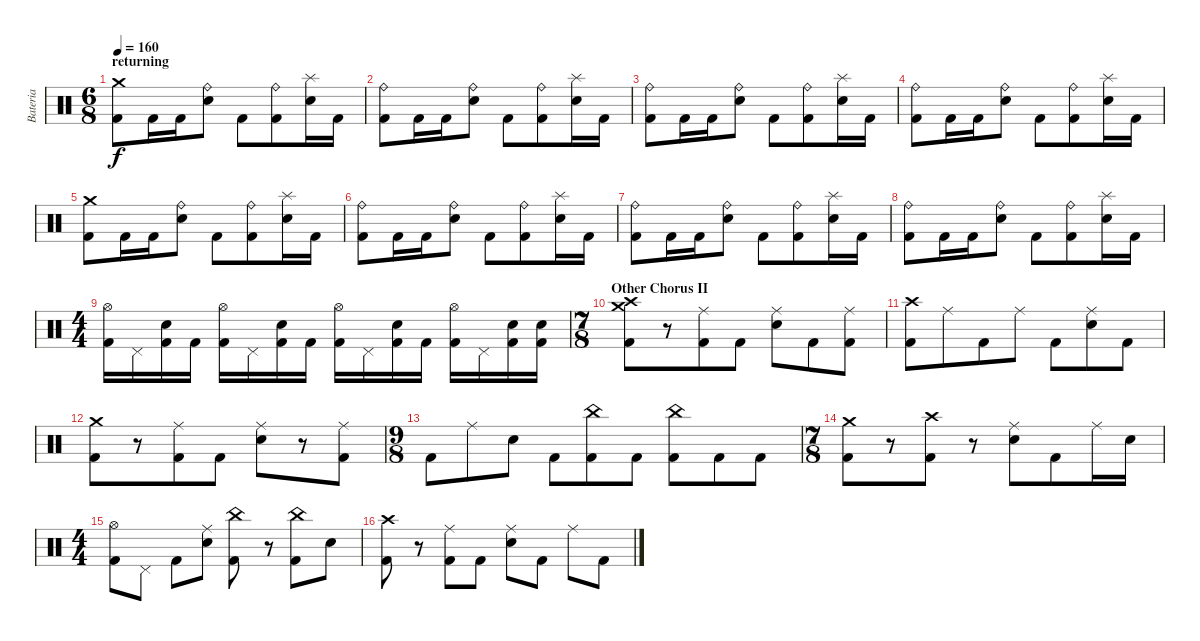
\track ("Bateria" "Bateria") {instrument percussion}
\staff {score}
\articulation defaults
\ts (6 8)
\section ("" "returning ")
\tempo 160
\clef neutral
\ks c
("Crash medium (hit)" "Kick (hit) 2").8{dy f} "Kick (hit) 2".16 "Kick (hit) 2".16 ("Ride (bell)" "Electric Snare (hit)").8 "Kick (hit) 2".8 ("Ride (bell)" "Kick (hit) 2").8 ("Splash (hit)" "Electric Snare (hit)").16 "Kick (hit) 2".16 |
("Ride (bell)" "Kick (hit) 2").8 "Kick (hit) 2".16 "Kick (hit) 2".16 ("Ride (bell)" "Electric Snare (hit)").8 "Kick (hit) 2".8 ("Ride (bell)" "Kick (hit) 2").8 ("Splash (hit)" "Electric Snare (hit)").16 "Kick (hit) 2".16 |
("Ride (bell)" "Kick (hit) 2").8 "Kick (hit) 2".16 "Kick (hit) 2".16 ("Ride (bell)" "Electric Snare (hit)").8 "Kick (hit) 2".8 ("Ride (bell)" "Kick (hit) 2").8 ("Splash (hit)" "Electric Snare (hit)").16 "Kick (hit) 2".16 |
("Ride (bell)" "Kick (hit) 2").8 "Kick (hit) 2".16 "Kick (hit) 2".16 ("Ride (bell)" "Electric Snare (hit)").8 "Kick (hit) 2".8 ("Ride (bell)" "Kick (hit) 2").8 ("Splash (hit)" "Electric Snare (hit)").16 "Kick (hit) 2".16 |
("Crash medium (hit)" "Kick (hit) 2").8 "Kick (hit) 2".16 "Kick (hit) 2".16 ("Ride (bell)" "Electric Snare (hit)").8 "Kick (hit) 2".8 ("Ride (bell)" "Kick (hit) 2").8 ("Splash (hit)" "Electric Snare (hit)").16 "Kick (hit) 2".16 |
("Ride (bell)" "Kick (hit) 2").8 "Kick (hit) 2".16 "Kick (hit) 2".16 ("Ride (bell)" "Electric Snare (hit)").8 "Kick (hit) 2".8 ("Ride (bell)" "Kick (hit) 2").8 ("Splash (hit)" "Electric Snare (hit)").16 "Kick (hit) 2".16 |
("Ride (bell)" "Kick (hit) 2").8 "Kick (hit) 2".16 "Kick (hit) 2".16 ("Ride (bell)" "Electric Snare (hit)").8 "Kick (hit) 2".8 ("Ride (bell)" "Kick (hit) 2").8 ("Splash (hit)" "Electric Snare (hit)").16 "Kick (hit) 2".16 |
("Ride (bell)" "Kick (hit) 2").8 "Kick (hit) 2".16 "Kick (hit) 2".16 ("Ride (bell)" "Electric Snare (hit)").8 "Kick (hit) 2".8 ("Ride (bell)" "Kick (hit) 2").8 ("Splash (hit)" "Electric Snare (hit)").16 "Kick (hit) 2".16 |
\ts (4 4)
("Hi-Hat (open)" "Kick (hit) 2").16 "Pedal Hi-Hat (hit)".16 ("Electric Snare (hit)" "Kick (hit) 2").16 "Kick (hit) 2".16 ("Hi-Hat (open)" "Kick (hit) 2").16 "Pedal Hi-Hat (hit)".16 ("Electric Snare (hit)" "Kick (hit) 2").16 "Kick (hit) 2".16 ("Hi-Hat (open)" "Kick (hit) 2").16 "Pedal Hi-Hat (hit)".16 ("Electric Snare (hit)" "Kick (hit) 2").16 "Kick (hit) 2".16 ("Hi-Hat (open)" "Kick (hit) 2").16 "Pedal Hi-Hat (hit)".16 ("Electric Snare (hit)" "Kick (hit) 2").16 ("Electric Snare (hit)" "Kick (hit) 2").16 |
\ts (7 8)
\section ("" "Other Chorus II")
("Crash medium (hit)" "Crash high (hit)" "Kick (hit) 2").8 r.8 ("Ride (middle)" "Kick (hit) 2").8 "Kick (hit) 2".8 ("Ride (middle)" "Electric Snare (hit)").8 "Kick (hit) 2".8 ("Ride (middle)" "Kick (hit) 2").8 |
("Crash high (hit)" "Kick (hit) 2").8 "Ride (middle)".8 "Kick (hit) 2".8 "Ride (middle)".8 "Kick (hit) 2".8 ("Ride (middle)" "Electric Snare (hit)").8 "Kick (hit) 2".8 |
("Crash medium (hit)" "Kick (hit) 2").8 r.8 ("Ride (middle)" "Kick (hit) 2").8 "Kick (hit) 2".8 ("Ride (middle)" "Electric Snare (hit)").8 r.8 ("Ride (middle)" "Kick (hit) 2").8 |
\ts (9 8)
"Kick (hit) 2".8 "Ride (middle)".8 "Electric Snare (hit)".8 "Kick (hit) 2".8 ("China (hit)" "Kick (hit) 2").8 "Kick (hit) 2".8 ("China (hit)" "Kick (hit) 2").8 "Kick (hit) 2".8 "Kick (hit) 2".8 |
\ts (7 8)
("Crash medium (hit)" "Kick (hit) 2").8 r.8 ("Crash high (hit)" "Kick (hit) 2").8 r.8 ("Ride (middle)" "Electric Snare (hit)").8 "Kick (hit) 2".8 "Ride (middle)".16 "Electric Snare (hit)".16 |
\ts (4 4)
("Hi-Hat (open)" "Kick (hit) 2").8 "Pedal Hi-Hat (hit)".8 "Kick (hit) 2".8 ("Ride (middle)" "Electric Snare (hit)").8 ("China (hit)" "Kick (hit) 2").8 r.8 ("China (hit)" "Kick (hit) 2").8 "Electric Snare (hit)".8 |
("Crash high (hit)" "Kick (hit) 2").8 r.8 ("Ride (middle)" "Kick (hit) 2").8 "Kick (hit) 2".8 ("Ride (middle)" "Electric Snare (hit)").8 "Kick (hit) 2".8 "Ride (middle)".8 "Kick (hit) 2".8
